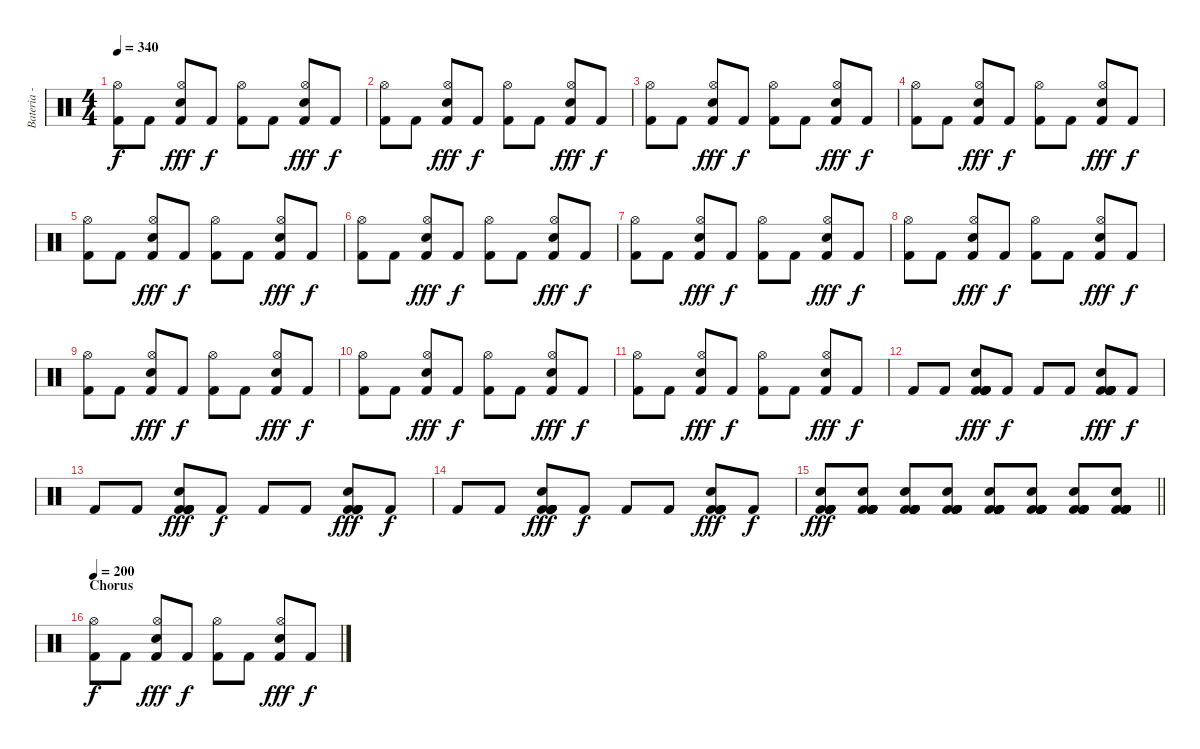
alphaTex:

\track ("Bateria - Larzon" "Bateria - ") {instrument percussion}
\staff {score}
\articulation defaults
\ts (4 4)
\tempo 340
\clef neutral
\ks c
("Kick (hit) 2" "Hi-Hat (open)").8{dy f} "Kick (hit) 2".8 ("Kick (hit) 2" "Hi-Hat (open)" "Snare (hit) 2").8{dy fff} "Kick (hit) 2".8{dy f} ("Kick (hit) 2" "Hi-Hat (open)").8 "Kick (hit) 2".8 ("Kick (hit) 2" "Hi-Hat (open)" "Snare (hit) 2").8{dy fff} "Kick (hit) 2".8{dy f} |
("Kick (hit) 2" "Hi-Hat (open)").8 "Kick (hit) 2".8 ("Kick (hit) 2" "Hi-Hat (open)" "Snare (hit) 2").8{dy fff} "Kick (hit) 2".8{dy f} ("Kick (hit) 2" "Hi-Hat (open)").8 "Kick (hit) 2".8 ("Kick (hit) 2" "Hi-Hat (open)" "Snare (hit) 2").8{dy fff} "Kick (hit) 2".8{dy f} |
("Kick (hit) 2" "Hi-Hat (open)").8 "Kick (hit) 2".8 ("Kick (hit) 2" "Hi-Hat (open)" "Snare (hit) 2").8{dy fff} "Kick (hit) 2".8{dy f} ("Kick (hit) 2" "Hi-Hat (open)").8 "Kick (hit) 2".8 ("Kick (hit) 2" "Hi-Hat (open)" "Snare (hit) 2").8{dy fff} "Kick (hit) 2".8{dy f} |
("Kick (hit) 2" "Hi-Hat (open)").8 "Kick (hit) 2".8 ("Kick (hit) 2" "Hi-Hat (open)" "Snare (hit) 2").8{dy fff} "Kick (hit) 2".8{dy f} ("Kick (hit) 2" "Hi-Hat (open)").8 "Kick (hit) 2".8 ("Kick (hit) 2" "Hi-Hat (open)" "Snare (hit) 2").8{dy fff} "Kick (hit) 2".8{dy f} |
("Kick (hit) 2" "Hi-Hat (open)").8 "Kick (hit) 2".8 ("Kick (hit) 2" "Hi-Hat (open)" "Snare (hit) 2").8{dy fff} "Kick (hit) 2".8{dy f} ("Kick (hit) 2" "Hi-Hat (open)").8 "Kick (hit) 2".8 ("Kick (hit) 2" "Hi-Hat (open)" "Snare (hit) 2").8{dy fff} "Kick (hit) 2".8{dy f} |
("Kick (hit) 2" "Hi-Hat (open)").8 "Kick (hit) 2".8 ("Kick (hit) 2" "Hi-Hat (open)" "Snare (hit) 2").8{dy fff} "Kick (hit) 2".8{dy f} ("Kick (hit) 2" "Hi-Hat (open)").8 "Kick (hit) 2".8 ("Kick (hit) 2" "Hi-Hat (open)" "Snare (hit) 2").8{dy fff} "Kick (hit) 2".8{dy f} |
("Kick (hit) 2" "Hi-Hat (open)").8 "Kick (hit) 2".8 ("Kick (hit) 2" "Hi-Hat (open)" "Snare (hit) 2").8{dy fff} "Kick (hit) 2".8{dy f} ("Kick (hit) 2" "Hi-Hat (open)").8 "Kick (hit) 2".8 ("Kick (hit) 2" "Hi-Hat (open)" "Snare (hit) 2").8{dy fff} "Kick (hit) 2".8{dy f} |
("Kick (hit) 2" "Hi-Hat (open)").8 "Kick (hit) 2".8 ("Kick (hit) 2" "Hi-Hat (open)" "Snare (hit) 2").8{dy fff} "Kick (hit) 2".8{dy f} ("Kick (hit) 2" "Hi-Hat (open)").8 "Kick (hit) 2".8 ("Kick (hit) 2" "Hi-Hat (open)" "Snare (hit) 2").8{dy fff} "Kick (hit) 2".8{dy f} |
("Kick (hit) 2" "Hi-Hat (open)").8 "Kick (hit) 2".8 ("Kick (hit) 2" "Hi-Hat (open)" "Snare (hit) 2").8{dy fff} "Kick (hit) 2".8{dy f} ("Kick (hit) 2" "Hi-Hat (open)").8 "Kick (hit) 2".8 ("Kick (hit) 2" "Hi-Hat (open)" "Snare (hit) 2").8{dy fff} "Kick (hit) 2".8{dy f} |
("Kick (hit) 2" "Hi-Hat (open)").8 "Kick (hit) 2".8 ("Kick (hit) 2" "Hi-Hat (open)" "Snare (hit) 2").8{dy fff} "Kick (hit) 2".8{dy f} ("Kick (hit) 2" "Hi-Hat (open)").8 "Kick (hit) 2".8 ("Kick (hit) 2" "Hi-Hat (open)" "Snare (hit) 2").8{dy fff} "Kick (hit) 2".8{dy f} |
("Kick (hit) 2" "Hi-Hat (open)").8 "Kick (hit) 2".8 ("Kick (hit) 2" "Hi-Hat (open)" "Snare (hit) 2").8{dy fff} "Kick (hit) 2".8{dy f} ("Kick (hit) 2" "Hi-Hat (open)").8 "Kick (hit) 2".8 ("Kick (hit) 2" "Hi-Hat (open)" "Snare (hit) 2").8{dy fff} "Kick (hit) 2".8{dy f} |
"Kick (hit) 2".8 "Kick (hit) 2".8 ("Kick (hit) 2" "Kick (hit) 2" "Kick (hit) 2" "Kick (hit) 2" "Kick (hit) 2" "Snare (hit) 2").8{dy fff} "Kick (hit) 2".8{dy f} "Kick (hit) 2".8 "Kick (hit) 2".8 ("Kick (hit) 2" "Kick (hit) 2" "Kick (hit) 2" "Kick (hit) 2" "Kick (hit) 2" "Snare (hit) 2").8{dy fff} "Kick (hit) 2".8{dy f} |
"Kick (hit) 2".8 "Kick (hit) 2".8 ("Kick (hit) 2" "Kick (hit) 2" "Kick (hit) 2" "Kick (hit) 2" "Kick (hit) 2" "Snare (hit) 2").8{dy fff} "Kick (hit) 2".8{dy f} "Kick (hit) 2".8 "Kick (hit) 2".8 ("Kick (hit) 2" "Kick (hit) 2" "Kick (hit) 2" "Kick (hit) 2" "Kick (hit) 2" "Snare (hit) 2").8{dy fff} "Kick (hit) 2".8{dy f} |
"Kick (hit) 2".8 "Kick (hit) 2".8 ("Kick (hit) 2" "Kick (hit) 2" "Kick (hit) 2" "Kick (hit) 2" "Kick (hit) 2" "Snare (hit) 2").8{dy fff} "Kick (hit) 2".8{dy f} "Kick (hit) 2".8 "Kick (hit) 2".8 ("Kick (hit) 2" "Kick (hit) 2" "Kick (hit) 2" "Kick (hit) 2" "Kick (hit) 2" "Snare (hit) 2").8{dy fff} "Kick (hit) 2".8{dy f} |
\barLineRight lightlight
("Kick (hit) 2" "Kick (hit) 2" "Kick (hit) 2" "Kick (hit) 2" "Kick (hit) 2" "Snare (hit) 2").8{dy fff} ("Kick (hit) 2" "Kick (hit) 2" "Kick (hit) 2" "Kick (hit) 2" "Kick (hit) 2" "Snare (hit) 2").8 ("Kick (hit) 2" "Kick (hit) 2" "Kick (hit) 2" "Kick (hit) 2" "Kick (hit) 2" "Snare (hit) 2").8 ("Kick (hit) 2" "Kick (hit) 2" "Kick (hit) 2" "Kick (hit) 2" "Kick (hit) 2" "Snare (hit) 2").8 ("Kick (hit) 2" "Kick (hit) 2" "Kick (hit) 2" "Kick (hit) 2" "Kick (hit) 2" "Snare (hit) 2").8 ("Kick (hit) 2" "Kick (hit) 2" "Kick (hit) 2" "Kick (hit) 2" "Kick (hit) 2" "Snare (hit) 2").8 ("Kick (hit) 2" "Kick (hit) 2" "Kick (hit) 2" "Kick (hit) 2" "Kick (hit) 2" "Snare (hit) 2").8 ("Kick (hit) 2" "Kick (hit) 2" "Kick (hit) 2" "Kick (hit) 2" "Kick (hit) 2" "Snare (hit) 2").8 |
\section ("" "Chorus")
\tempo 200
("Kick (hit) 2" "Hi-Hat (open)").8{dy f} "Kick (hit) 2".8 ("Kick (hit) 2" "Hi-Hat (open)" "Snare (hit) 2").8{dy fff} "Kick (hit) 2".8{dy f} ("Kick (hit) 2" "Hi-Hat (open)").8 "Kick (hit) 2".8 ("Kick (hit) 2" "Hi-Hat (open)" "Snare (hit) 2").8{dy fff} "Kick (hit) 2".8{dy f}
